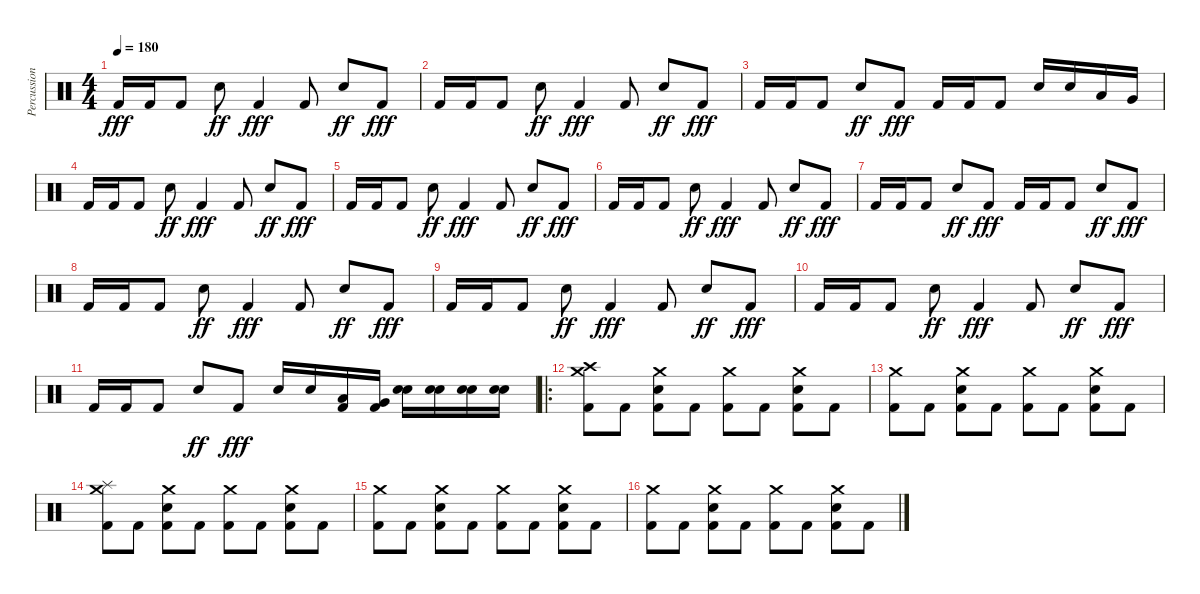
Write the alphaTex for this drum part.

\track ("Percussion (Francisco Izquierdo)" "Percussion") {instrument percussion}
\staff {score}
\articulation defaults
\ts (4 4)
\tempo 180
\clef neutral
\ks c "Kick (hit) 2".16{dy fff} "Kick (hit) 2".16 "Kick (hit) 2".8 "Electric Snare (hit)".8{dy ff} "Kick (hit) 2".4{dy fff} "Kick (hit) 2".8 "Electric Snare (hit)".8{dy ff} "Kick (hit) 2".8{dy fff}
|
"Kick (hit) 2".16 "Kick (hit) 2".16 "Kick (hit) 2".8 "Electric Snare (hit)".8{dy ff} "Kick (hit) 2".4{dy fff} "Kick (hit) 2".8 "Electric Snare (hit)".8{dy ff} "Kick (hit) 2".8{dy fff} |
"Kick (hit) 2".16 "Kick (hit) 2".16 "Kick (hit) 2".8 "Electric Snare (hit)".8{dy ff} "Kick (hit) 2".8{dy fff} "Kick (hit) 2".16 "Kick (hit) 2".16 "Kick (hit) 2".8 "Electric Snare (hit)".16 "Electric Snare (hit)".16 "Low Tom (hit)".16 "Very Low Tom (hit)".16 |
"Kick (hit) 2".16 "Kick (hit) 2".16 "Kick (hit) 2".8 "Electric Snare (hit)".8{dy ff} "Kick (hit) 2".4{dy fff} "Kick (hit) 2".8 "Electric Snare (hit)".8{dy ff} "Kick (hit) 2".8{dy fff} |
"Kick (hit) 2".16 "Kick (hit) 2".16 "Kick (hit) 2".8 "Electric Snare (hit)".8{dy ff} "Kick (hit) 2".4{dy fff} "Kick (hit) 2".8 "Electric Snare (hit)".8{dy ff} "Kick (hit) 2".8{dy fff} |
"Kick (hit) 2".16 "Kick (hit) 2".16 "Kick (hit) 2".8 "Electric Snare (hit)".8{dy ff} "Kick (hit) 2".4{dy fff} "Kick (hit) 2".8 "Electric Snare (hit)".8{dy ff} "Kick (hit) 2".8{dy fff} |
"Kick (hit) 2".16 "Kick (hit) 2".16 "Kick (hit) 2".8 "Electric Snare (hit)".8{dy ff} "Kick (hit) 2".8{dy fff} "Kick (hit) 2".16 "Kick (hit) 2".16 "Kick (hit) 2".8 "Electric Snare (hit)".8{dy ff} "Kick (hit) 2".8{dy fff} |
"Kick (hit) 2".16 "Kick (hit) 2".16 "Kick (hit) 2".8 "Electric Snare (hit)".8{dy ff} "Kick (hit) 2".4{dy fff} "Kick (hit) 2".8 "Electric Snare (hit)".8{dy ff} "Kick (hit) 2".8{dy fff} |
"Kick (hit) 2".16 "Kick (hit) 2".16 "Kick (hit) 2".8 "Electric Snare (hit)".8{dy ff} "Kick (hit) 2".4{dy fff} "Kick (hit) 2".8 "Electric Snare (hit)".8{dy ff} "Kick (hit) 2".8{dy fff} |
"Kick (hit) 2".16 "Kick (hit) 2".16 "Kick (hit) 2".8 "Electric Snare (hit)".8{dy ff} "Kick (hit) 2".4{dy fff} "Kick (hit) 2".8 "Electric Snare (hit)".8{dy ff} "Kick (hit) 2".8{dy fff} |
"Kick (hit) 2".16 "Kick (hit) 2".16 "Kick (hit) 2".8 "Electric Snare (hit)".8{dy ff} "Kick (hit) 2".8{dy fff} "Electric Snare (hit)".16 "Electric Snare (hit)".16 ("Low Tom (hit)" "Kick (hit) 2").16 ("Very Low Tom (hit)" "Kick (hit) 2").16 ("Electric Snare (hit)" "Electric Snare (hit)").16 ("Electric Snare (hit)" "Electric Snare (hit)").16 ("Electric Snare (hit)" "Electric Snare (hit)").16 ("Electric Snare (hit)" "Electric Snare (hit)").16 |
\ro
("Crash medium (hit)" "Crash high (hit)" "Kick (hit) 2").8 "Kick (hit) 2".8 ("Crash medium (hit)" "Electric Snare (hit)" "Kick (hit) 2").8 "Kick (hit) 2".8 ("Crash medium (hit)" "Kick (hit) 2").8 "Kick (hit) 2".8 ("Crash medium (hit)" "Electric Snare (hit)" "Kick (hit) 2").8 "Kick (hit) 2".8 |
("Crash medium (hit)" "Kick (hit) 2").8 "Kick (hit) 2".8 ("Crash medium (hit)" "Electric Snare (hit)" "Kick (hit) 2").8 "Kick (hit) 2".8 ("Crash medium (hit)" "Kick (hit) 2").8 "Kick (hit) 2".8 ("Crash medium (hit)" "Electric Snare (hit)" "Kick (hit) 2").8 "Kick (hit) 2".8 |
("Crash medium (hit)" "Splash (hit)" "Kick (hit) 2").8 "Kick (hit) 2".8 ("Crash medium (hit)" "Electric Snare (hit)" "Kick (hit) 2").8 "Kick (hit) 2".8 ("Crash medium (hit)" "Kick (hit) 2").8 "Kick (hit) 2".8 ("Crash medium (hit)" "Electric Snare (hit)" "Kick (hit) 2").8 "Kick (hit) 2".8 |
("Crash medium (hit)" "Kick (hit) 2").8 "Kick (hit) 2".8 ("Crash medium (hit)" "Electric Snare (hit)" "Kick (hit) 2").8 "Kick (hit) 2".8 ("Crash medium (hit)" "Kick (hit) 2").8 "Kick (hit) 2".8 ("Crash medium (hit)" "Electric Snare (hit)" "Kick (hit) 2").8 "Kick (hit) 2".8 |
("Crash medium (hit)" "Kick (hit) 2").8 "Kick (hit) 2".8 ("Crash medium (hit)" "Electric Snare (hit)" "Kick (hit) 2").8 "Kick (hit) 2".8 ("Crash medium (hit)" "Kick (hit) 2").8 "Kick (hit) 2".8 ("Crash medium (hit)" "Electric Snare (hit)" "Kick (hit) 2").8 "Kick (hit) 2".8
